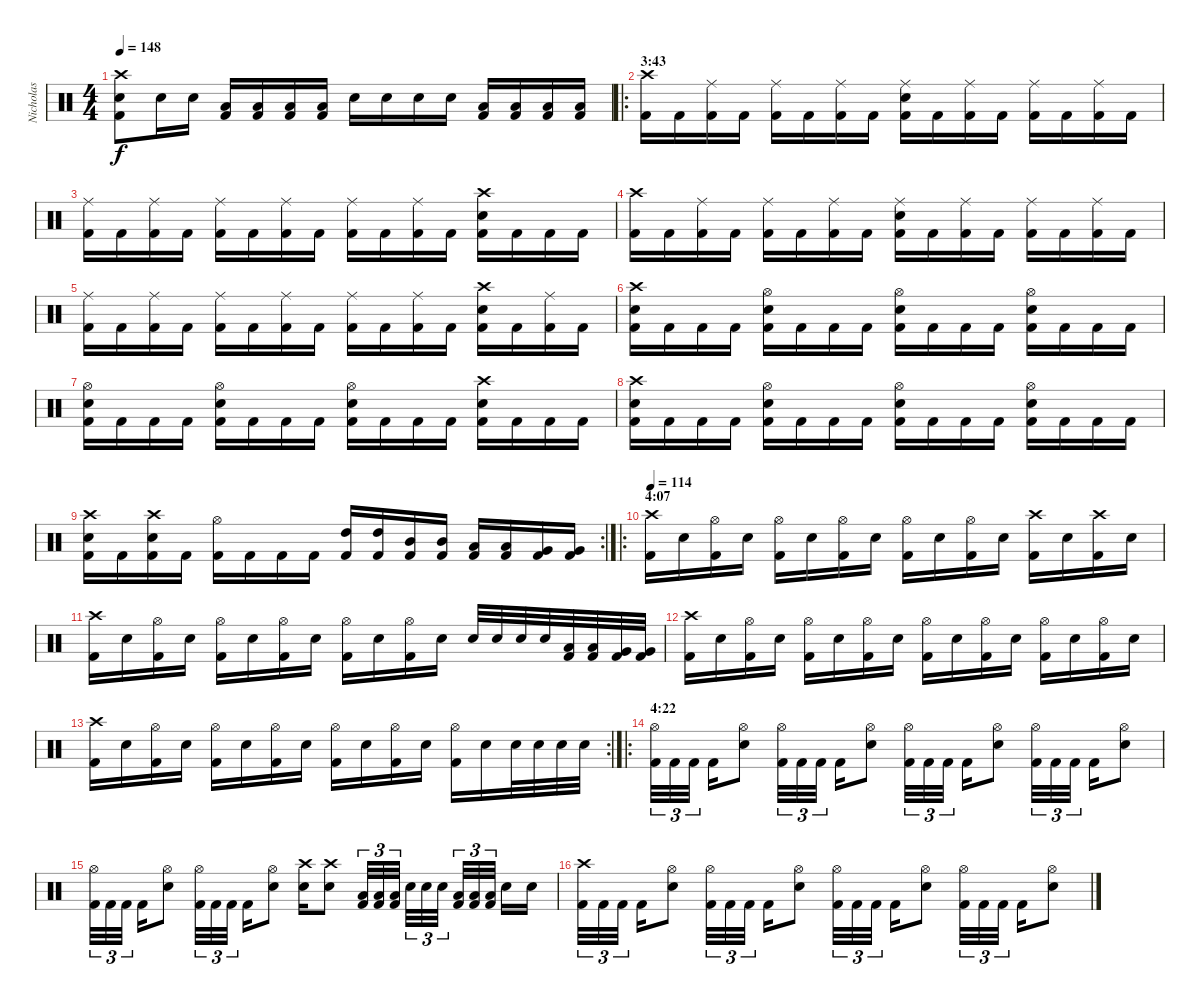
\track ("Nicholas" "Nicholas") {instrument percussion}
\staff {score}
\articulation defaults
\ts (4 4)
\tempo 148
\clef neutral
\ks c
("Kick (hit) 2" "Snare (hit) 2" "Crash high (hit)").8{dy f} "Snare (hit) 2".16 "Snare (hit) 2".16 ("Kick (hit) 2" "Low Tom (hit)").16 ("Kick (hit) 2" "Low Tom (hit)").16 ("Kick (hit) 2" "Low Tom (hit)").16 ("Kick (hit) 2" "Low Tom (hit)").16 "Snare (hit) 2".16 "Snare (hit) 2".16 "Snare (hit) 2".16 "Snare (hit) 2".16 ("Kick (hit) 2" "Low Tom (hit)").16 ("Kick (hit) 2" "Low Tom (hit)").16 ("Kick (hit) 2" "Low Tom (hit)").16 ("Kick (hit) 2" "Low Tom (hit)").16 |
\ro
\section ("" "3:43")
("Kick (hit) 2" "Crash high (hit)").16 "Kick (hit) 2".16 ("Kick (hit) 2" "Ride (middle)").16 "Kick (hit) 2".16 ("Kick (hit) 2" "Ride (middle)").16 "Kick (hit) 2".16 ("Kick (hit) 2" "Ride (middle)").16 "Kick (hit) 2".16 ("Kick (hit) 2" "Snare (hit) 2" "Ride (middle)").16 "Kick (hit) 2".16 ("Kick (hit) 2" "Ride (middle)").16 "Kick (hit) 2".16 ("Kick (hit) 2" "Ride (middle)").16 "Kick (hit) 2".16 ("Kick (hit) 2" "Ride (middle)").16 "Kick (hit) 2".16 |
("Kick (hit) 2" "Ride (middle)").16 "Kick (hit) 2".16 ("Kick (hit) 2" "Ride (middle)").16 "Kick (hit) 2".16 ("Kick (hit) 2" "Ride (middle)").16 "Kick (hit) 2".16 ("Kick (hit) 2" "Ride (middle)").16 "Kick (hit) 2".16 ("Kick (hit) 2" "Ride (middle)").16 "Kick (hit) 2".16 ("Kick (hit) 2" "Ride (middle)").16 "Kick (hit) 2".16 ("Kick (hit) 2" "Snare (hit) 2" "Crash high (hit)").16 "Kick (hit) 2".16 "Kick (hit) 2".16 "Kick (hit) 2".16 |
("Kick (hit) 2" "Crash high (hit)").16 "Kick (hit) 2".16 ("Kick (hit) 2" "Ride (middle)").16 "Kick (hit) 2".16 ("Kick (hit) 2" "Ride (middle)").16 "Kick (hit) 2".16 ("Kick (hit) 2" "Ride (middle)").16 "Kick (hit) 2".16 ("Kick (hit) 2" "Snare (hit) 2" "Ride (middle)").16 "Kick (hit) 2".16 ("Kick (hit) 2" "Ride (middle)").16 "Kick (hit) 2".16 ("Kick (hit) 2" "Ride (middle)").16 "Kick (hit) 2".16 ("Kick (hit) 2" "Ride (middle)").16 "Kick (hit) 2".16 |
("Kick (hit) 2" "Ride (middle)").16 "Kick (hit) 2".16 ("Kick (hit) 2" "Ride (middle)").16 "Kick (hit) 2".16 ("Kick (hit) 2" "Ride (middle)").16 "Kick (hit) 2".16 ("Kick (hit) 2" "Ride (middle)").16 "Kick (hit) 2".16 ("Kick (hit) 2" "Ride (middle)").16 "Kick (hit) 2".16 ("Kick (hit) 2" "Ride (middle)").16 "Kick (hit) 2".16 ("Kick (hit) 2" "Snare (hit) 2" "Crash high (hit)").16 "Kick (hit) 2".16 ("Kick (hit) 2" "Ride (middle)").16 "Kick (hit) 2".16 |
("Kick (hit) 2" "Snare (hit) 2" "Crash high (hit)").16 "Kick (hit) 2".16 "Kick (hit) 2".16 "Kick (hit) 2".16 ("Kick (hit) 2" "Snare (hit) 2" "Hi-Hat (open)").16 "Kick (hit) 2".16 "Kick (hit) 2".16 "Kick (hit) 2".16 ("Kick (hit) 2" "Snare (hit) 2" "Hi-Hat (open)").16 "Kick (hit) 2".16 "Kick (hit) 2".16 "Kick (hit) 2".16 ("Kick (hit) 2" "Snare (hit) 2" "Hi-Hat (open)").16 "Kick (hit) 2".16 "Kick (hit) 2".16 "Kick (hit) 2".16 |
("Kick (hit) 2" "Snare (hit) 2" "Hi-Hat (open)").16 "Kick (hit) 2".16 "Kick (hit) 2".16 "Kick (hit) 2".16 ("Kick (hit) 2" "Snare (hit) 2" "Hi-Hat (open)").16 "Kick (hit) 2".16 "Kick (hit) 2".16 "Kick (hit) 2".16 ("Kick (hit) 2" "Snare (hit) 2" "Hi-Hat (open)").16 "Kick (hit) 2".16 "Kick (hit) 2".16 "Kick (hit) 2".16 ("Kick (hit) 2" "Snare (hit) 2" "Crash high (hit)").16 "Kick (hit) 2".16 "Kick (hit) 2".16 "Kick (hit) 2".16 |
("Kick (hit) 2" "Snare (hit) 2" "Crash high (hit)").16 "Kick (hit) 2".16 "Kick (hit) 2".16 "Kick (hit) 2".16 ("Kick (hit) 2" "Snare (hit) 2" "Hi-Hat (open)").16 "Kick (hit) 2".16 "Kick (hit) 2".16 "Kick (hit) 2".16 ("Kick (hit) 2" "Snare (hit) 2" "Hi-Hat (open)").16 "Kick (hit) 2".16 "Kick (hit) 2".16 "Kick (hit) 2".16 ("Kick (hit) 2" "Snare (hit) 2" "Hi-Hat (open)").16 "Kick (hit) 2".16 "Kick (hit) 2".16 "Kick (hit) 2".16 |
\rc 2
("Kick (hit) 2" "Snare (hit) 2" "Crash high (hit)").16 "Kick (hit) 2".16 ("Kick (hit) 2" "Snare (hit) 2" "Crash high (hit)").16 "Kick (hit) 2".16 ("Kick (hit) 2" "Hi-Hat (open)").16 "Kick (hit) 2".16 "Kick (hit) 2".16 "Kick (hit) 2".16 ("Kick (hit) 2" "High Tom (hit)").16 ("Kick (hit) 2" "High Tom (hit)").16 ("Kick (hit) 2" "Mid Tom (hit)").16 ("Kick (hit) 2" "Mid Tom (hit)").16 ("Kick (hit) 2" "Low Tom (hit)").16 ("Kick (hit) 2" "Low Tom (hit)").16 ("Kick (hit) 2" "Very Low Tom (hit)").16 ("Kick (hit) 2" "Very Low Tom (hit)").16 |
\ro
\section ("" "4:07")
\tempo 114
("Kick (hit) 2" "Crash high (hit)").16 "Snare (hit) 2".16 ("Kick (hit) 2" "Hi-Hat (open)").16 "Snare (hit) 2".16 ("Kick (hit) 2" "Hi-Hat (open)").16 "Snare (hit) 2".16 ("Kick (hit) 2" "Hi-Hat (open)").16 "Snare (hit) 2".16 ("Kick (hit) 2" "Hi-Hat (open)").16 "Snare (hit) 2".16 ("Kick (hit) 2" "Hi-Hat (open)").16 "Snare (hit) 2".16 ("Kick (hit) 2" "Crash high (hit)").16 "Snare (hit) 2".16 ("Kick (hit) 2" "Crash high (hit)").16 "Snare (hit) 2".16 |
("Kick (hit) 2" "Crash high (hit)").16 "Snare (hit) 2".16 ("Kick (hit) 2" "Hi-Hat (open)").16 "Snare (hit) 2".16 ("Kick (hit) 2" "Hi-Hat (open)").16 "Snare (hit) 2".16 ("Kick (hit) 2" "Hi-Hat (open)").16 "Snare (hit) 2".16 ("Kick (hit) 2" "Hi-Hat (open)").16 "Snare (hit) 2".16 ("Kick (hit) 2" "Hi-Hat (open)").16 "Snare (hit) 2".16 "Snare (hit) 2".32 "Snare (hit) 2".32 "Snare (hit) 2".32 "Snare (hit) 2".32 ("Kick (hit) 2" "Low Tom (hit)").32 ("Kick (hit) 2" "Low Tom (hit)").32 ("Kick (hit) 2" "Very Low Tom (hit)").32 ("Kick (hit) 2" "Very Low Tom (hit)").32 |
("Kick (hit) 2" "Crash high (hit)").16 "Snare (hit) 2".16 ("Kick (hit) 2" "Hi-Hat (open)").16 "Snare (hit) 2".16 ("Kick (hit) 2" "Hi-Hat (open)").16 "Snare (hit) 2".16 ("Kick (hit) 2" "Hi-Hat (open)").16 "Snare (hit) 2".16 ("Kick (hit) 2" "Hi-Hat (open)").16 "Snare (hit) 2".16 ("Kick (hit) 2" "Hi-Hat (open)").16 "Snare (hit) 2".16 ("Kick (hit) 2" "Hi-Hat (open)").16 "Snare (hit) 2".16 ("Kick (hit) 2" "Hi-Hat (open)").16 "Snare (hit) 2".16 |
\rc 2
("Kick (hit) 2" "Crash high (hit)").16 "Snare (hit) 2".16 ("Kick (hit) 2" "Hi-Hat (open)").16 "Snare (hit) 2".16 ("Kick (hit) 2" "Hi-Hat (open)").16 "Snare (hit) 2".16 ("Kick (hit) 2" "Hi-Hat (open)").16 "Snare (hit) 2".16 ("Kick (hit) 2" "Hi-Hat (open)").16 "Snare (hit) 2".16 ("Kick (hit) 2" "Hi-Hat (open)").16 "Snare (hit) 2".16 ("Kick (hit) 2" "Hi-Hat (open)").16 "Snare (hit) 2".16 "Snare (hit) 2".32 "Snare (hit) 2".32 "Snare (hit) 2".32 "Snare (hit) 2".32 |
\ro
\section ("" "4:22")
("Kick (hit) 2" "Hi-Hat (open)").32{tu (3 2)} "Kick (hit) 2".32{tu (3 2)} "Kick (hit) 2".32{tu (3 2)} "Kick (hit) 2".16 ("Snare (hit) 2" "Hi-Hat (open)").8 ("Kick (hit) 2" "Hi-Hat (open)").32{tu (3 2)} "Kick (hit) 2".32{tu (3 2)} "Kick (hit) 2".32{tu (3 2)} "Kick (hit) 2".16 ("Snare (hit) 2" "Hi-Hat (open)").8 ("Kick (hit) 2" "Hi-Hat (open)").32{tu (3 2)} "Kick (hit) 2".32{tu (3 2)} "Kick (hit) 2".32{tu (3 2)} "Kick (hit) 2".16 ("Snare (hit) 2" "Hi-Hat (open)").8 ("Kick (hit) 2" "Hi-Hat (open)").32{tu (3 2)} "Kick (hit) 2".32{tu (3 2)} "Kick (hit) 2".32{tu (3 2)} "Kick (hit) 2".16 ("Snare (hit) 2" "Hi-Hat (open)").8 |
("Kick (hit) 2" "Hi-Hat (open)").32{tu (3 2)} "Kick (hit) 2".32{tu (3 2)} "Kick (hit) 2".32{tu (3 2)} "Kick (hit) 2".16 ("Snare (hit) 2" "Hi-Hat (open)").8 ("Kick (hit) 2" "Hi-Hat (open)").32{tu (3 2)} "Kick (hit) 2".32{tu (3 2)} "Kick (hit) 2".32{tu (3 2)} "Kick (hit) 2".16 ("Snare (hit) 2" "Hi-Hat (open)").8 ("Snare (hit) 2" "Crash high (hit)").16 ("Snare (hit) 2" "Crash high (hit)").8 ("Kick (hit) 2" "Low Tom (hit)").32{tu (3 2)} ("Kick (hit) 2" "Low Tom (hit)").32{tu (3 2)} ("Kick (hit) 2" "Low Tom (hit)").32{tu (3 2)} "Snare (hit) 2".32{tu (3 2)} "Snare (hit) 2".32{tu (3 2)} "Snare (hit) 2".32{tu (3 2)} ("Kick (hit) 2" "Low Tom (hit)").32{tu (3 2)} ("Kick (hit) 2" "Low Tom (hit)").32{tu (3 2)} ("Kick (hit) 2" "Low Tom (hit)").32{tu (3 2)} "Snare (hit) 2".16 "Snare (hit) 2".16 |
("Kick (hit) 2" "Crash high (hit)").32{tu (3 2)} "Kick (hit) 2".32{tu (3 2)} "Kick (hit) 2".32{tu (3 2)} "Kick (hit) 2".16 ("Snare (hit) 2" "Hi-Hat (open)").8 ("Kick (hit) 2" "Hi-Hat (open)").32{tu (3 2)} "Kick (hit) 2".32{tu (3 2)} "Kick (hit) 2".32{tu (3 2)} "Kick (hit) 2".16 ("Snare (hit) 2" "Hi-Hat (open)").8 ("Kick (hit) 2" "Hi-Hat (open)").32{tu (3 2)} "Kick (hit) 2".32{tu (3 2)} "Kick (hit) 2".32{tu (3 2)} "Kick (hit) 2".16 ("Snare (hit) 2" "Hi-Hat (open)").8 ("Kick (hit) 2" "Hi-Hat (open)").32{tu (3 2)} "Kick (hit) 2".32{tu (3 2)} "Kick (hit) 2".32{tu (3 2)} "Kick (hit) 2".16 ("Snare (hit) 2" "Hi-Hat (open)").8
